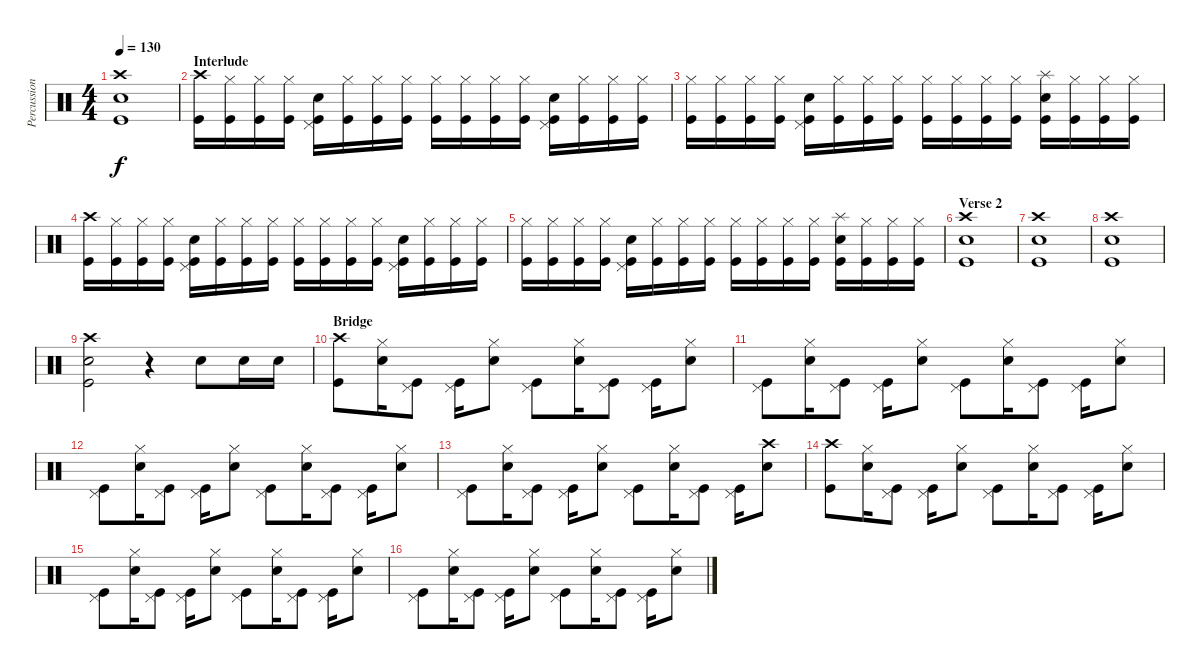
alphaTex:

\track ("Percussion" "Percussion") {instrument percussion}
\staff {score}
\articulation defaults
\ts (4 4)
\tempo 130
\clef neutral
\ks c
("Crash high (hit)" "Snare (hit) 2" "Kick (hit)").1{dy f} |
\section ("" "Interlude")
("Crash high (hit)" "Kick (hit)").16 ("Hi-Hat (closed)" "Kick (hit)").16 ("Hi-Hat (closed)" "Kick (hit)").16 ("Hi-Hat (closed)" "Kick (hit)").16 ("Pedal Hi-Hat (hit)" "Snare (hit) 2" "Kick (hit)").16 ("Hi-Hat (closed)" "Kick (hit)").16 ("Hi-Hat (closed)" "Kick (hit)").16 ("Hi-Hat (closed)" "Kick (hit)").16 ("Hi-Hat (closed)" "Kick (hit)").16 ("Hi-Hat (closed)" "Kick (hit)").16 ("Hi-Hat (closed)" "Kick (hit)").16 ("Hi-Hat (closed)" "Kick (hit)").16 ("Pedal Hi-Hat (hit)" "Snare (hit) 2" "Kick (hit)").16 ("Hi-Hat (closed)" "Kick (hit)").16 ("Hi-Hat (closed)" "Kick (hit)").16 ("Hi-Hat (closed)" "Kick (hit)").16 |
("Hi-Hat (closed)" "Kick (hit)").16 ("Hi-Hat (closed)" "Kick (hit)").16 ("Hi-Hat (closed)" "Kick (hit)").16 ("Hi-Hat (closed)" "Kick (hit)").16 ("Pedal Hi-Hat (hit)" "Snare (hit) 2" "Kick (hit)").16 ("Hi-Hat (closed)" "Kick (hit)").16 ("Hi-Hat (closed)" "Kick (hit)").16 ("Hi-Hat (closed)" "Kick (hit)").16 ("Hi-Hat (closed)" "Kick (hit)").16 ("Hi-Hat (closed)" "Kick (hit)").16 ("Hi-Hat (closed)" "Kick (hit)").16 ("Hi-Hat (closed)" "Kick (hit)").16 ("Splash (hit)" "Snare (hit) 2" "Kick (hit)").16 ("Hi-Hat (closed)" "Kick (hit)").16 ("Hi-Hat (closed)" "Kick (hit)").16 ("Hi-Hat (closed)" "Kick (hit)").16 |
("Crash high (hit)" "Kick (hit)").16 ("Hi-Hat (closed)" "Kick (hit)").16 ("Hi-Hat (closed)" "Kick (hit)").16 ("Hi-Hat (closed)" "Kick (hit)").16 ("Pedal Hi-Hat (hit)" "Snare (hit) 2" "Kick (hit)").16 ("Hi-Hat (closed)" "Kick (hit)").16 ("Hi-Hat (closed)" "Kick (hit)").16 ("Hi-Hat (closed)" "Kick (hit)").16 ("Hi-Hat (closed)" "Kick (hit)").16 ("Hi-Hat (closed)" "Kick (hit)").16 ("Hi-Hat (closed)" "Kick (hit)").16 ("Hi-Hat (closed)" "Kick (hit)").16 ("Pedal Hi-Hat (hit)" "Snare (hit) 2" "Kick (hit)").16 ("Hi-Hat (closed)" "Kick (hit)").16 ("Hi-Hat (closed)" "Kick (hit)").16 ("Hi-Hat (closed)" "Kick (hit)").16 |
("Hi-Hat (closed)" "Kick (hit)").16 ("Hi-Hat (closed)" "Kick (hit)").16 ("Hi-Hat (closed)" "Kick (hit)").16 ("Hi-Hat (closed)" "Kick (hit)").16 ("Pedal Hi-Hat (hit)" "Snare (hit) 2" "Kick (hit)").16 ("Hi-Hat (closed)" "Kick (hit)").16 ("Hi-Hat (closed)" "Kick (hit)").16 ("Hi-Hat (closed)" "Kick (hit)").16 ("Hi-Hat (closed)" "Kick (hit)").16 ("Hi-Hat (closed)" "Kick (hit)").16 ("Hi-Hat (closed)" "Kick (hit)").16 ("Hi-Hat (closed)" "Kick (hit)").16 ("Splash (hit)" "Snare (hit) 2" "Kick (hit)").16 ("Hi-Hat (closed)" "Kick (hit)").16 ("Hi-Hat (closed)" "Kick (hit)").16 ("Hi-Hat (closed)" "Kick (hit)").16 |
\section ("" "Verse 2")
("Crash high (hit)" "Snare (hit) 2" "Kick (hit)").1 |
("Crash high (hit)" "Snare (hit) 2" "Kick (hit)").1 |
("Crash high (hit)" "Snare (hit) 2" "Kick (hit)").1 |
("Crash high (hit)" "Snare (hit) 2" "Kick (hit)").2 r.4 "Snare (hit) 2".8 "Snare (hit) 2".16 "Snare (hit) 2".16 |
\section ("" "Bridge")
("Crash high (hit)" "Kick (hit)").8 ("Hi-Hat (closed)" "Snare (hit) 2").16 ("Pedal Hi-Hat (hit)" "Kick (hit)").8 ("Pedal Hi-Hat (hit)" "Kick (hit)").16 ("Hi-Hat (closed)" "Snare (hit) 2").8 ("Pedal Hi-Hat (hit)" "Kick (hit)").8 ("Hi-Hat (closed)" "Snare (hit) 2").16 ("Pedal Hi-Hat (hit)" "Kick (hit)").8 ("Pedal Hi-Hat (hit)" "Kick (hit)").16 ("Hi-Hat (closed)" "Snare (hit) 2").8 |
("Pedal Hi-Hat (hit)" "Kick (hit)").8 ("Hi-Hat (closed)" "Snare (hit) 2").16 ("Pedal Hi-Hat (hit)" "Kick (hit)").8 ("Pedal Hi-Hat (hit)" "Kick (hit)").16 ("Hi-Hat (closed)" "Snare (hit) 2").8 ("Pedal Hi-Hat (hit)" "Kick (hit)").8 ("Hi-Hat (closed)" "Snare (hit) 2").16 ("Pedal Hi-Hat (hit)" "Kick (hit)").8 ("Pedal Hi-Hat (hit)" "Kick (hit)").16 ("Hi-Hat (closed)" "Snare (hit) 2").8 |
("Pedal Hi-Hat (hit)" "Kick (hit)").8 ("Hi-Hat (closed)" "Snare (hit) 2").16 ("Pedal Hi-Hat (hit)" "Kick (hit)").8 ("Pedal Hi-Hat (hit)" "Kick (hit)").16 ("Hi-Hat (closed)" "Snare (hit) 2").8 ("Pedal Hi-Hat (hit)" "Kick (hit)").8 ("Hi-Hat (closed)" "Snare (hit) 2").16 ("Pedal Hi-Hat (hit)" "Kick (hit)").8 ("Pedal Hi-Hat (hit)" "Kick (hit)").16 ("Hi-Hat (closed)" "Snare (hit) 2").8 |
("Pedal Hi-Hat (hit)" "Kick (hit)").8 ("Hi-Hat (closed)" "Snare (hit) 2").16 ("Pedal Hi-Hat (hit)" "Kick (hit)").8 ("Pedal Hi-Hat (hit)" "Kick (hit)").16 ("Hi-Hat (closed)" "Snare (hit) 2").8 ("Pedal Hi-Hat (hit)" "Kick (hit)").8 ("Hi-Hat (closed)" "Snare (hit) 2").16 ("Pedal Hi-Hat (hit)" "Kick (hit)").8 ("Pedal Hi-Hat (hit)" "Kick (hit)").16 ("Crash high (hit)" "Snare (hit) 2").8 |
("Crash high (hit)" "Kick (hit)").8 ("Hi-Hat (closed)" "Snare (hit) 2").16 ("Pedal Hi-Hat (hit)" "Kick (hit)").8 ("Pedal Hi-Hat (hit)" "Kick (hit)").16 ("Hi-Hat (closed)" "Snare (hit) 2").8 ("Pedal Hi-Hat (hit)" "Kick (hit)").8 ("Hi-Hat (closed)" "Snare (hit) 2").16 ("Pedal Hi-Hat (hit)" "Kick (hit)").8 ("Pedal Hi-Hat (hit)" "Kick (hit)").16 ("Hi-Hat (closed)" "Snare (hit) 2").8 |
("Pedal Hi-Hat (hit)" "Kick (hit)").8 ("Hi-Hat (closed)" "Snare (hit) 2").16 ("Pedal Hi-Hat (hit)" "Kick (hit)").8 ("Pedal Hi-Hat (hit)" "Kick (hit)").16 ("Hi-Hat (closed)" "Snare (hit) 2").8 ("Pedal Hi-Hat (hit)" "Kick (hit)").8 ("Hi-Hat (closed)" "Snare (hit) 2").16 ("Pedal Hi-Hat (hit)" "Kick (hit)").8 ("Pedal Hi-Hat (hit)" "Kick (hit)").16 ("Hi-Hat (closed)" "Snare (hit) 2").8 |
("Pedal Hi-Hat (hit)" "Kick (hit)").8 ("Hi-Hat (closed)" "Snare (hit) 2").16 ("Pedal Hi-Hat (hit)" "Kick (hit)").8 ("Pedal Hi-Hat (hit)" "Kick (hit)").16 ("Hi-Hat (closed)" "Snare (hit) 2").8 ("Pedal Hi-Hat (hit)" "Kick (hit)").8 ("Hi-Hat (closed)" "Snare (hit) 2").16 ("Pedal Hi-Hat (hit)" "Kick (hit)").8 ("Pedal Hi-Hat (hit)" "Kick (hit)").16 ("Hi-Hat (closed)" "Snare (hit) 2").8
